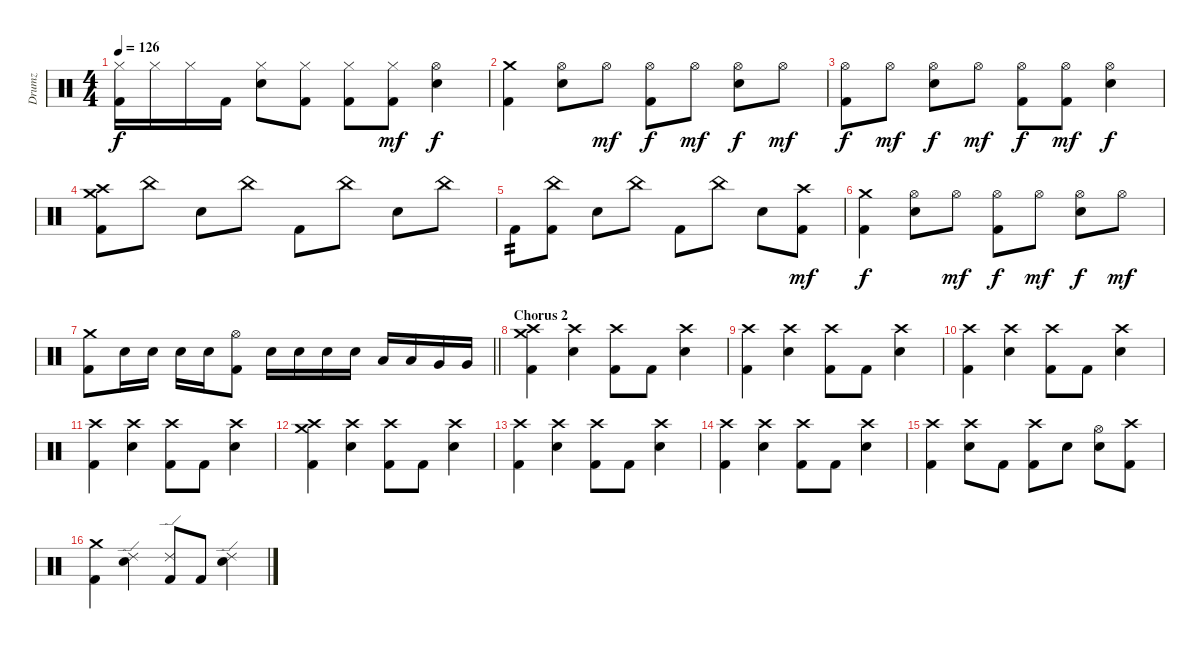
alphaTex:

\track ("Drumz" "Drumz") {instrument percussion}
\staff {score}
\articulation defaults
\ts (4 4)
\tempo 126
\clef neutral
\ks c
("Hi-Hat (closed)" "Kick (hit) 2").16{dy f} "Hi-Hat (closed)".16 "Hi-Hat (closed)".16 "Kick (hit) 2".16 ("Hi-Hat (closed)" "Snare (hit) 2").8 ("Hi-Hat (closed)" "Kick (hit) 2").8 ("Hi-Hat (closed)" "Kick (hit) 2").8 ("Hi-Hat (closed)" "Kick (hit) 2").8{dy mf} ("Hi-Hat (open)" "Snare (hit) 2").4{dy f} |
("Crash medium (hit)" "Kick (hit) 2").4 ("Hi-Hat (open)" "Snare (hit) 2").8 "Hi-Hat (open)".8{dy mf} ("Hi-Hat (open)" "Kick (hit) 2").8{dy f} "Hi-Hat (open)".8{dy mf} ("Hi-Hat (open)" "Snare (hit) 2").8{dy f} "Hi-Hat (open)".8{dy mf} |
("Hi-Hat (open)" "Kick (hit) 2").8{dy f} "Hi-Hat (open)".8{dy mf} ("Hi-Hat (open)" "Snare (hit) 2").8{dy f} "Hi-Hat (open)".8{dy mf} ("Hi-Hat (open)" "Kick (hit) 2").8{dy f} ("Hi-Hat (open)" "Kick (hit) 2").8{dy mf} ("Hi-Hat (open)" "Snare (hit) 2").4{dy f} |
("Crash medium (hit)" "Crash high (hit)" "Kick (hit) 2").8 "China (hit)".8 "Snare (hit) 2".8 "China (hit)".8 "Kick (hit) 2".8 "China (hit)".8 "Snare (hit) 2".8 "China (hit)".8 |
"Kick (hit) 2".8{tp 2} ("China (hit)" "Kick (hit) 2").8 "Snare (hit) 2".8 "China (hit)".8 "Kick (hit) 2".8 "China (hit)".8 "Snare (hit) 2".8 ("Crash high (hit)" "Kick (hit) 2").8{dy mf} |
("Crash medium (hit)" "Kick (hit) 2").4{dy f} ("Hi-Hat (open)" "Snare (hit) 2").8 "Hi-Hat (open)".8{dy mf} ("Hi-Hat (open)" "Kick (hit) 2").8{dy f} "Hi-Hat (open)".8{dy mf} ("Hi-Hat (open)" "Snare (hit) 2").8{dy f} "Hi-Hat (open)".8{dy mf} |
\barLineRight lightlight
("Crash medium (hit)" "Kick (hit) 2").8 "Snare (hit) 2".16 "Snare (hit) 2".16 "Snare (hit) 2".16 "Snare (hit) 2".16 ("Hi-Hat (open)" "Kick (hit) 2").8 "Snare (hit) 2".16 "Snare (hit) 2".16 "Snare (hit) 2".16 "Snare (hit) 2".16 "Low Tom (hit)".16 "Low Tom (hit)".16 "Very Low Tom (hit)".16 "Very Low Tom (hit)".16 |
\section ("" "Chorus 2")
("Crash high (hit)" "Crash medium (hit)" "Kick (hit) 2").4 ("Crash high (hit)" "Snare (hit) 2").4 ("Crash high (hit)" "Kick (hit) 2").8 "Kick (hit) 2".8 ("Crash high (hit)" "Snare (hit) 2").4 |
("Crash high (hit)" "Kick (hit) 2").4 ("Crash high (hit)" "Snare (hit) 2").4 ("Crash high (hit)" "Kick (hit) 2").8 "Kick (hit) 2".8 ("Crash high (hit)" "Snare (hit) 2").4 |
("Crash high (hit)" "Kick (hit) 2").4 ("Crash high (hit)" "Snare (hit) 2").4 ("Crash high (hit)" "Kick (hit) 2").8 "Kick (hit) 2".8 ("Crash high (hit)" "Snare (hit) 2").4 |
("Crash high (hit)" "Kick (hit) 2").4 ("Crash high (hit)" "Snare (hit) 2").4 ("Crash high (hit)" "Kick (hit) 2").8 "Kick (hit) 2".8 ("Crash high (hit)" "Snare (hit) 2").4 |
("Crash high (hit)" "Crash medium (hit)" "Kick (hit) 2").4 ("Crash high (hit)" "Snare (hit) 2").4 ("Crash high (hit)" "Kick (hit) 2").8 "Kick (hit) 2".8 ("Crash high (hit)" "Snare (hit) 2").4 |
("Crash high (hit)" "Kick (hit) 2").4 ("Crash high (hit)" "Snare (hit) 2").4 ("Crash high (hit)" "Kick (hit) 2").8 "Kick (hit) 2".8 ("Crash high (hit)" "Snare (hit) 2").4 |
("Crash high (hit)" "Kick (hit) 2").4 ("Crash high (hit)" "Snare (hit) 2").4 ("Crash high (hit)" "Kick (hit) 2").8 "Kick (hit) 2".8 ("Crash high (hit)" "Snare (hit) 2").4 |
("Crash high (hit)" "Kick (hit) 2").4 ("Crash high (hit)" "Snare (hit) 2").8 "Kick (hit) 2".8 ("Crash high (hit)" "Kick (hit) 2").8 "Snare (hit) 2".8 ("Hi-Hat (open)" "Snare (hit) 2").8 ("Crash high (hit)" "Kick (hit) 2").8 |
("Crash medium (hit)" "Kick (hit) 2").4 ("Ride (edge) 2" "Snare (hit) 2").4 ("Ride (edge) 2" "Kick (hit) 2").8 "Kick (hit) 2".8 ("Ride (edge) 2" "Snare (hit) 2").4
